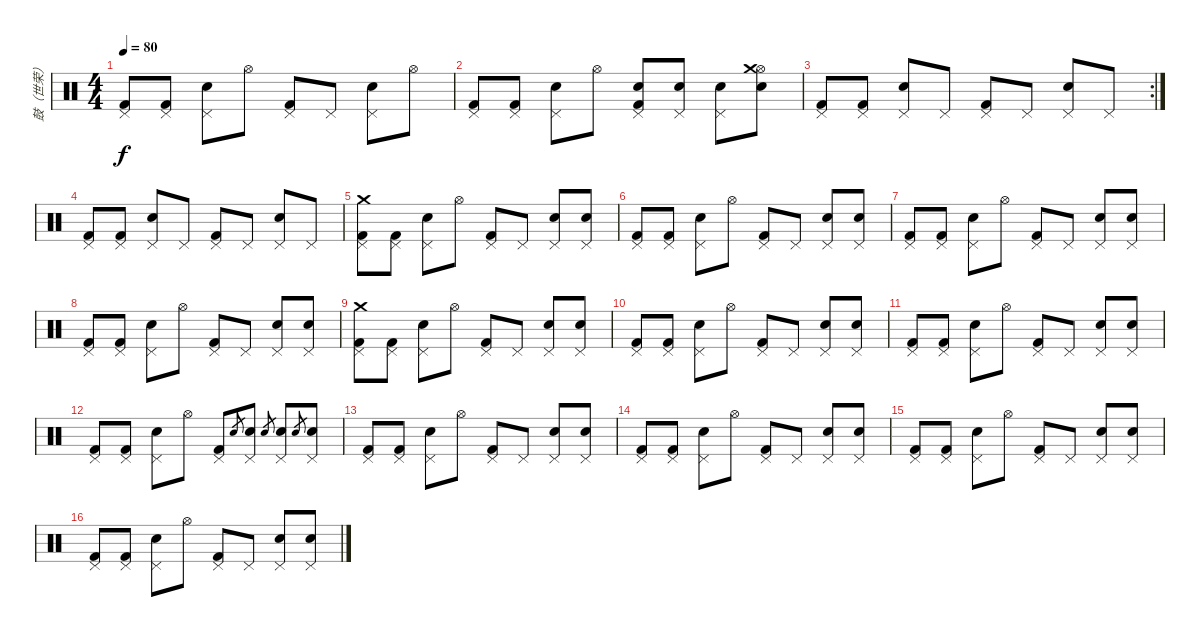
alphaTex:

\track ("鼓（世荣）" "鼓（世荣）") {instrument percussion}
\staff {score}
\articulation defaults
\ts (4 4)
\tempo 80
\clef neutral
\ks c
("Pedal Hi-Hat (hit)" "Kick (hit) 2").8{dy f} ("Pedal Hi-Hat (hit)" "Kick (hit) 2").8 ("Pedal Hi-Hat (hit)" "Snare (hit) 2").8 "Hi-Hat (open)".8 ("Pedal Hi-Hat (hit)" "Kick (hit) 2").8 "Pedal Hi-Hat (hit)".8 ("Pedal Hi-Hat (hit)" "Snare (hit) 2").8 "Hi-Hat (open)".8 |
("Pedal Hi-Hat (hit)" "Kick (hit) 2").8 ("Pedal Hi-Hat (hit)" "Kick (hit) 2").8 ("Pedal Hi-Hat (hit)" "Snare (hit) 2").8 "Hi-Hat (open)".8 ("Pedal Hi-Hat (hit)" "Kick (hit) 2" "Snare (hit) 2").8 ("Pedal Hi-Hat (hit)" "Snare (hit) 2").8 ("Pedal Hi-Hat (hit)" "Snare (hit) 2").8 ("Hi-Hat (open)" "Crash medium (hit)" "Snare (hit) 2").8 |
\rc 2
("Pedal Hi-Hat (hit)" "Kick (hit) 2").8 ("Pedal Hi-Hat (hit)" "Kick (hit) 2").8 ("Pedal Hi-Hat (hit)" "Snare (hit) 2").8 "Pedal Hi-Hat (hit)".8 ("Pedal Hi-Hat (hit)" "Kick (hit) 2").8 "Pedal Hi-Hat (hit)".8 ("Pedal Hi-Hat (hit)" "Snare (hit) 2").8 "Pedal Hi-Hat (hit)".8 |
("Pedal Hi-Hat (hit)" "Kick (hit) 2").8 ("Pedal Hi-Hat (hit)" "Kick (hit) 2").8 ("Pedal Hi-Hat (hit)" "Snare (hit) 2").8 "Pedal Hi-Hat (hit)".8 ("Pedal Hi-Hat (hit)" "Kick (hit) 2").8 "Pedal Hi-Hat (hit)".8 ("Pedal Hi-Hat (hit)" "Snare (hit) 2").8 "Pedal Hi-Hat (hit)".8 |
("Pedal Hi-Hat (hit)" "Crash medium (hit)" "Kick (hit) 2").8 ("Pedal Hi-Hat (hit)" "Kick (hit) 2").8 ("Pedal Hi-Hat (hit)" "Snare (hit) 2").8 "Hi-Hat (open)".8 ("Pedal Hi-Hat (hit)" "Kick (hit) 2").8 "Pedal Hi-Hat (hit)".8 ("Pedal Hi-Hat (hit)" "Snare (hit) 2").8 ("Pedal Hi-Hat (hit)" "Snare (hit) 2").8 |
("Pedal Hi-Hat (hit)" "Kick (hit) 2").8 ("Pedal Hi-Hat (hit)" "Kick (hit) 2").8 ("Pedal Hi-Hat (hit)" "Snare (hit) 2").8 "Hi-Hat (open)".8 ("Pedal Hi-Hat (hit)" "Kick (hit) 2").8 "Pedal Hi-Hat (hit)".8 ("Pedal Hi-Hat (hit)" "Snare (hit) 2").8 ("Pedal Hi-Hat (hit)" "Snare (hit) 2").8 |
("Pedal Hi-Hat (hit)" "Kick (hit) 2").8 ("Pedal Hi-Hat (hit)" "Kick (hit) 2").8 ("Pedal Hi-Hat (hit)" "Snare (hit) 2").8 "Hi-Hat (open)".8 ("Pedal Hi-Hat (hit)" "Kick (hit) 2").8 "Pedal Hi-Hat (hit)".8 ("Pedal Hi-Hat (hit)" "Snare (hit) 2").8 ("Pedal Hi-Hat (hit)" "Snare (hit) 2").8 |
("Pedal Hi-Hat (hit)" "Kick (hit) 2").8 ("Pedal Hi-Hat (hit)" "Kick (hit) 2").8 ("Pedal Hi-Hat (hit)" "Snare (hit) 2").8 "Hi-Hat (open)".8 ("Pedal Hi-Hat (hit)" "Kick (hit) 2").8 "Pedal Hi-Hat (hit)".8 ("Pedal Hi-Hat (hit)" "Snare (hit) 2").8 ("Pedal Hi-Hat (hit)" "Snare (hit) 2").8 |
("Pedal Hi-Hat (hit)" "Crash medium (hit)" "Kick (hit) 2").8 ("Pedal Hi-Hat (hit)" "Kick (hit) 2").8 ("Pedal Hi-Hat (hit)" "Snare (hit) 2").8 "Hi-Hat (open)".8 ("Pedal Hi-Hat (hit)" "Kick (hit) 2").8 "Pedal Hi-Hat (hit)".8 ("Pedal Hi-Hat (hit)" "Snare (hit) 2").8 ("Pedal Hi-Hat (hit)" "Snare (hit) 2").8 |
("Pedal Hi-Hat (hit)" "Kick (hit) 2").8 ("Pedal Hi-Hat (hit)" "Kick (hit) 2").8 ("Pedal Hi-Hat (hit)" "Snare (hit) 2").8 "Hi-Hat (open)".8 ("Pedal Hi-Hat (hit)" "Kick (hit) 2").8 "Pedal Hi-Hat (hit)".8 ("Pedal Hi-Hat (hit)" "Snare (hit) 2").8 ("Pedal Hi-Hat (hit)" "Snare (hit) 2").8 |
("Pedal Hi-Hat (hit)" "Kick (hit) 2").8 ("Pedal Hi-Hat (hit)" "Kick (hit) 2").8 ("Pedal Hi-Hat (hit)" "Snare (hit) 2").8 "Hi-Hat (open)".8 ("Pedal Hi-Hat (hit)" "Kick (hit) 2").8 "Pedal Hi-Hat (hit)".8 ("Pedal Hi-Hat (hit)" "Snare (hit) 2").8 ("Pedal Hi-Hat (hit)" "Snare (hit) 2").8 |
("Pedal Hi-Hat (hit)" "Kick (hit) 2").8 ("Pedal Hi-Hat (hit)" "Kick (hit) 2").8 ("Pedal Hi-Hat (hit)" "Snare (hit) 2").8 "Hi-Hat (open)".8 ("Pedal Hi-Hat (hit)" "Kick (hit) 2").8 "Snare (hit) 2".8{gr} ("Pedal Hi-Hat (hit)" "Snare (hit) 2").8 "Snare (hit) 2".8{gr} ("Pedal Hi-Hat (hit)" "Snare (hit) 2").8 "Snare (hit) 2".8{gr} ("Pedal Hi-Hat (hit)" "Snare (hit) 2").8 |
("Pedal Hi-Hat (hit)" "Kick (hit) 2").8 ("Pedal Hi-Hat (hit)" "Kick (hit) 2").8 ("Pedal Hi-Hat (hit)" "Snare (hit) 2").8 "Hi-Hat (open)".8 ("Pedal Hi-Hat (hit)" "Kick (hit) 2").8 "Pedal Hi-Hat (hit)".8 ("Pedal Hi-Hat (hit)" "Snare (hit) 2").8 ("Pedal Hi-Hat (hit)" "Snare (hit) 2").8 |
("Pedal Hi-Hat (hit)" "Kick (hit) 2").8 ("Pedal Hi-Hat (hit)" "Kick (hit) 2").8 ("Pedal Hi-Hat (hit)" "Snare (hit) 2").8 "Hi-Hat (open)".8 ("Pedal Hi-Hat (hit)" "Kick (hit) 2").8 "Pedal Hi-Hat (hit)".8 ("Pedal Hi-Hat (hit)" "Snare (hit) 2").8 ("Pedal Hi-Hat (hit)" "Snare (hit) 2").8 |
("Pedal Hi-Hat (hit)" "Kick (hit) 2").8 ("Pedal Hi-Hat (hit)" "Kick (hit) 2").8 ("Pedal Hi-Hat (hit)" "Snare (hit) 2").8 "Hi-Hat (open)".8 ("Pedal Hi-Hat (hit)" "Kick (hit) 2").8 "Pedal Hi-Hat (hit)".8 ("Pedal Hi-Hat (hit)" "Snare (hit) 2").8 ("Pedal Hi-Hat (hit)" "Snare (hit) 2").8 |
("Pedal Hi-Hat (hit)" "Kick (hit) 2").8 ("Pedal Hi-Hat (hit)" "Kick (hit) 2").8 ("Pedal Hi-Hat (hit)" "Snare (hit) 2").8 "Hi-Hat (open)".8 ("Pedal Hi-Hat (hit)" "Kick (hit) 2").8 "Pedal Hi-Hat (hit)".8 ("Pedal Hi-Hat (hit)" "Snare (hit) 2").8 ("Pedal Hi-Hat (hit)" "Snare (hit) 2").8
